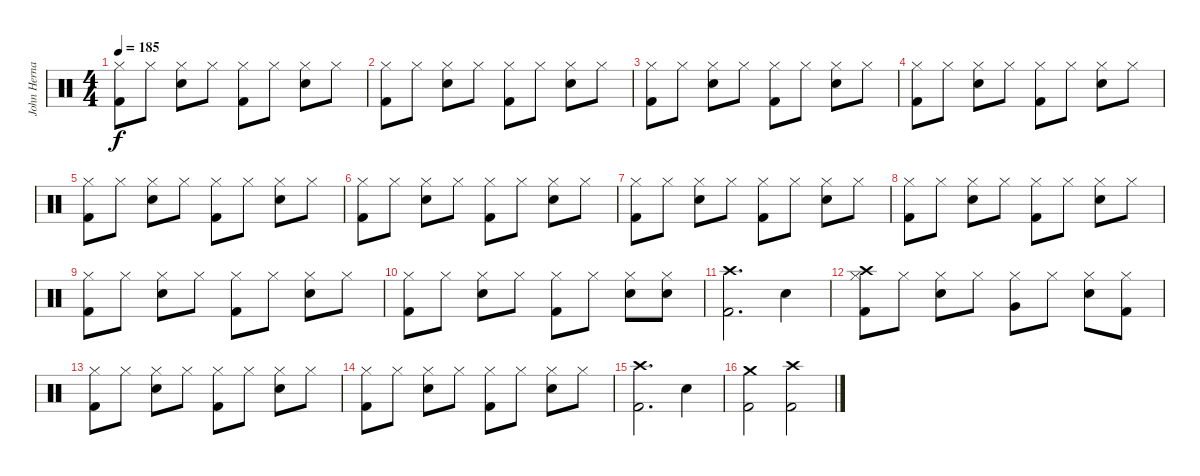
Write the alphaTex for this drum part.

\track ("John Hernandez" "John Herna") {instrument percussion}
\staff {score}
\articulation defaults
\ts (4 4)
\tempo 185
\clef neutral
\ks c
("Hi-Hat (closed)" "Kick (hit) 2").8{dy f} "Hi-Hat (closed)".8 ("Hi-Hat (closed)" "Snare (hit) 2").8 "Hi-Hat (closed)".8 ("Hi-Hat (closed)" "Kick (hit) 2").8 "Hi-Hat (closed)".8 ("Hi-Hat (closed)" "Snare (hit) 2").8 "Hi-Hat (closed)".8 |
("Hi-Hat (closed)" "Kick (hit) 2").8 "Hi-Hat (closed)".8 ("Hi-Hat (closed)" "Snare (hit) 2").8 "Hi-Hat (closed)".8 ("Hi-Hat (closed)" "Kick (hit) 2").8 "Hi-Hat (closed)".8 ("Hi-Hat (closed)" "Snare (hit) 2").8 "Hi-Hat (closed)".8 |
("Hi-Hat (closed)" "Kick (hit) 2").8 "Hi-Hat (closed)".8 ("Hi-Hat (closed)" "Snare (hit) 2").8 "Hi-Hat (closed)".8 ("Hi-Hat (closed)" "Kick (hit) 2").8 "Hi-Hat (closed)".8 ("Hi-Hat (closed)" "Snare (hit) 2").8 "Hi-Hat (closed)".8 |
("Hi-Hat (closed)" "Kick (hit) 2").8 "Hi-Hat (closed)".8 ("Hi-Hat (closed)" "Snare (hit) 2").8 "Hi-Hat (closed)".8 ("Hi-Hat (closed)" "Kick (hit) 2").8 "Hi-Hat (closed)".8 ("Hi-Hat (closed)" "Snare (hit) 2").8 "Hi-Hat (closed)".8 |
("Hi-Hat (closed)" "Kick (hit) 2").8 "Hi-Hat (closed)".8 ("Hi-Hat (closed)" "Snare (hit) 2").8 "Hi-Hat (closed)".8 ("Hi-Hat (closed)" "Kick (hit) 2").8 "Hi-Hat (closed)".8 ("Hi-Hat (closed)" "Snare (hit) 2").8 "Hi-Hat (closed)".8 |
("Hi-Hat (closed)" "Kick (hit) 2").8 "Hi-Hat (closed)".8 ("Hi-Hat (closed)" "Snare (hit) 2").8 "Hi-Hat (closed)".8 ("Hi-Hat (closed)" "Kick (hit) 2").8 "Hi-Hat (closed)".8 ("Hi-Hat (closed)" "Snare (hit) 2").8 "Hi-Hat (closed)".8 |
("Hi-Hat (closed)" "Kick (hit) 2").8 "Hi-Hat (closed)".8 ("Hi-Hat (closed)" "Snare (hit) 2").8 "Hi-Hat (closed)".8 ("Hi-Hat (closed)" "Kick (hit) 2").8 "Hi-Hat (closed)".8 ("Hi-Hat (closed)" "Snare (hit) 2").8 "Hi-Hat (closed)".8 |
("Hi-Hat (closed)" "Kick (hit) 2").8 "Hi-Hat (closed)".8 ("Hi-Hat (closed)" "Snare (hit) 2").8 "Hi-Hat (closed)".8 ("Hi-Hat (closed)" "Kick (hit) 2").8 "Hi-Hat (closed)".8 ("Hi-Hat (closed)" "Snare (hit) 2").8 "Hi-Hat (closed)".8 |
("Hi-Hat (closed)" "Kick (hit) 2").8 "Hi-Hat (closed)".8 ("Hi-Hat (closed)" "Snare (hit) 2").8 "Hi-Hat (closed)".8 ("Hi-Hat (closed)" "Kick (hit) 2").8 "Hi-Hat (closed)".8 ("Hi-Hat (closed)" "Snare (hit) 2").8 "Hi-Hat (closed)".8 |
("Hi-Hat (closed)" "Kick (hit) 2").8 "Hi-Hat (closed)".8 ("Hi-Hat (closed)" "Snare (hit) 2").8 "Hi-Hat (closed)".8 ("Hi-Hat (closed)" "Kick (hit) 2").8 "Hi-Hat (closed)".8 ("Hi-Hat (closed)" "Snare (hit) 2").8 ("Hi-Hat (closed)" "Snare (hit) 2").8 |
("Crash high (hit)" "Kick (hit) 2").2{d} "Snare (hit) 2".4 |
("Crash high (hit)" "Hi-Hat (closed)" "Kick (hit) 2").8 "Hi-Hat (closed)".8 ("Hi-Hat (closed)" "Snare (hit) 2").8 "Hi-Hat (closed)".8 ("Hi-Hat (closed)" "Very Low Tom (hit)").8 "Hi-Hat (closed)".8 ("Hi-Hat (closed)" "Snare (hit) 2").8 ("Hi-Hat (closed)" "Kick (hit) 2").8 |
("Hi-Hat (closed)" "Kick (hit) 2").8 "Hi-Hat (closed)".8 ("Hi-Hat (closed)" "Snare (hit) 2").8 "Hi-Hat (closed)".8 ("Hi-Hat (closed)" "Kick (hit) 2").8 "Hi-Hat (closed)".8 ("Hi-Hat (closed)" "Snare (hit) 2").8 "Hi-Hat (closed)".8 |
("Hi-Hat (closed)" "Kick (hit) 2").8 "Hi-Hat (closed)".8 ("Hi-Hat (closed)" "Snare (hit) 2").8 "Hi-Hat (closed)".8 ("Hi-Hat (closed)" "Kick (hit) 2").8 "Hi-Hat (closed)".8 ("Hi-Hat (closed)" "Snare (hit) 2").8 "Hi-Hat (closed)".8 |
("Crash high (hit)" "Kick (hit) 2").2{d} "Snare (hit) 2".4 |
("Crash medium (hit)" "Kick (hit) 2").2 ("Crash high (hit)" "Kick (hit) 2").2
